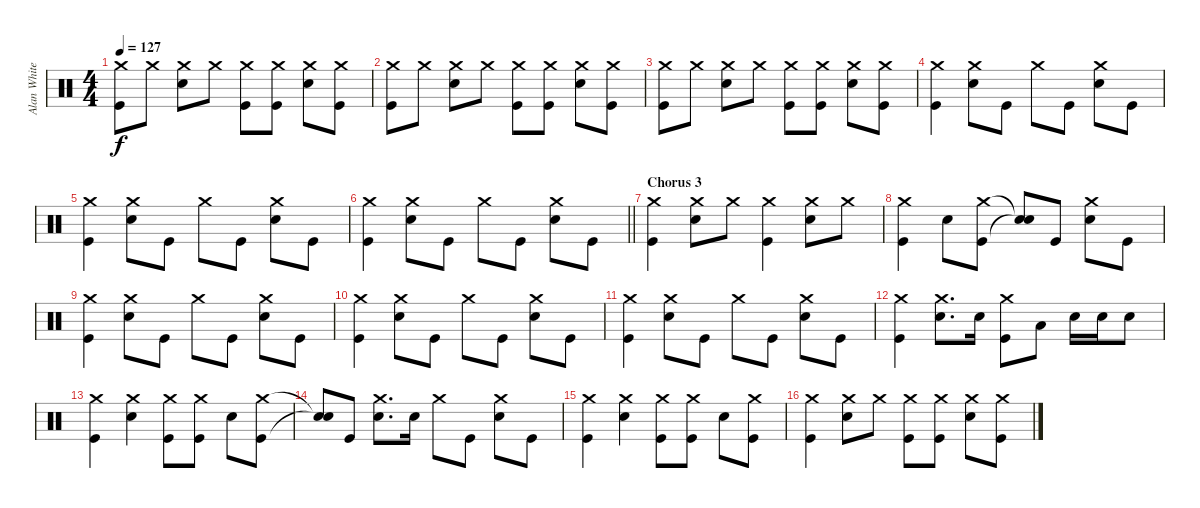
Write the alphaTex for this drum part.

\track ("Alan White (Percussion)" "Alan White") {instrument percussion}
\staff {score}
\articulation defaults
\ts (4 4)
\tempo 127
\clef neutral
\ks c
("Crash medium (hit)" "Kick (hit)").8{dy f} "Crash medium (hit)".8 ("Crash medium (hit)" "Snare (hit) 2").8 "Crash medium (hit)".8 ("Crash medium (hit)" "Kick (hit)").8 ("Crash medium (hit)" "Kick (hit)").8 ("Crash medium (hit)" "Snare (hit) 2").8 ("Crash medium (hit)" "Kick (hit)").8 |
("Crash medium (hit)" "Kick (hit)").8 "Crash medium (hit)".8 ("Crash medium (hit)" "Snare (hit) 2").8 "Crash medium (hit)".8 ("Crash medium (hit)" "Kick (hit)").8 ("Crash medium (hit)" "Kick (hit)").8 ("Crash medium (hit)" "Snare (hit) 2").8 ("Crash medium (hit)" "Kick (hit)").8 |
("Crash medium (hit)" "Kick (hit)").8 "Crash medium (hit)".8 ("Crash medium (hit)" "Snare (hit) 2").8 "Crash medium (hit)".8 ("Crash medium (hit)" "Kick (hit)").8 ("Crash medium (hit)" "Kick (hit)").8 ("Crash medium (hit)" "Snare (hit) 2").8 ("Crash medium (hit)" "Kick (hit)").8 |
("Crash medium (hit)" "Kick (hit)").4 ("Crash medium (hit)" "Snare (hit) 2").8 "Kick (hit)".8 "Crash medium (hit)".8 "Kick (hit)".8 ("Crash medium (hit)" "Snare (hit) 2").8 "Kick (hit)".8 |
("Crash medium (hit)" "Kick (hit)").4 ("Crash medium (hit)" "Snare (hit) 2").8 "Kick (hit)".8 "Crash medium (hit)".8 "Kick (hit)".8 ("Crash medium (hit)" "Snare (hit) 2").8 "Kick (hit)".8 |
\barLineRight lightlight
("Crash medium (hit)" "Kick (hit)").4 ("Crash medium (hit)" "Snare (hit) 2").8 "Kick (hit)".8 "Crash medium (hit)".8 "Kick (hit)".8 ("Crash medium (hit)" "Snare (hit) 2").8 "Kick (hit)".8 |
\section ("" "Chorus 3")
("Crash medium (hit)" "Kick (hit)").4 ("Crash medium (hit)" "Snare (hit) 2").8 "Crash medium (hit)".8 ("Crash medium (hit)" "Kick (hit)").4 ("Crash medium (hit)" "Snare (hit) 2").8 "Crash medium (hit)".8 |
("Crash medium (hit)" "Kick (hit)").4 "Snare (hit) 2".8 ("Crash medium (hit)" "Kick (hit)").8 ("Snare (hit)"{t} "Snare (hit)"{t}).8 "Kick (hit)".8 ("Crash medium (hit)" "Snare (hit) 2").8 "Kick (hit)".8 |
("Crash medium (hit)" "Kick (hit)").4 ("Crash medium (hit)" "Snare (hit) 2").8 "Kick (hit)".8 "Crash medium (hit)".8 "Kick (hit)".8 ("Crash medium (hit)" "Snare (hit) 2").8 "Kick (hit)".8 |
("Crash medium (hit)" "Kick (hit)").4 ("Crash medium (hit)" "Snare (hit) 2").8 "Kick (hit)".8 "Crash medium (hit)".8 "Kick (hit)".8 ("Crash medium (hit)" "Snare (hit) 2").8 "Kick (hit)".8 |
("Crash medium (hit)" "Kick (hit)").4 ("Crash medium (hit)" "Snare (hit) 2").8 "Kick (hit)".8 "Crash medium (hit)".8 "Kick (hit)".8 ("Crash medium (hit)" "Snare (hit) 2").8 "Kick (hit)".8 |
("Crash medium (hit)" "Kick (hit)").4 ("Crash medium (hit)" "Snare (hit) 2").8{d} "Snare (hit) 2".16 ("Crash medium (hit)" "Kick (hit)").8 "Low Tom (hit)".8 "Snare (hit) 2".16 "Snare (hit) 2".16 "Snare (hit) 2".8 |
("Crash medium (hit)" "Kick (hit)").4 ("Crash medium (hit)" "Snare (hit) 2").4 ("Crash medium (hit)" "Kick (hit)").8 ("Crash medium (hit)" "Kick (hit)").8 "Snare (hit) 2".8 ("Crash medium (hit)" "Kick (hit)").8 |
("Snare (hit)"{t} "Snare (hit)"{t}).8 "Kick (hit)".8 ("Crash medium (hit)" "Snare (hit) 2").8{d} "Snare (hit) 2".16 "Crash medium (hit)".8 "Kick (hit)".8 ("Crash medium (hit)" "Snare (hit) 2").8 "Kick (hit)".8 |
("Crash medium (hit)" "Kick (hit)").4 ("Crash medium (hit)" "Snare (hit) 2").4 ("Crash medium (hit)" "Kick (hit)").8 ("Crash medium (hit)" "Kick (hit)").8 "Snare (hit) 2".8 ("Crash medium (hit)" "Kick (hit)").8 |
("Crash medium (hit)" "Kick (hit)").4 ("Crash medium (hit)" "Snare (hit) 2").8 "Crash medium (hit)".8 ("Crash medium (hit)" "Kick (hit)").8 ("Crash medium (hit)" "Kick (hit)").8 ("Crash medium (hit)" "Snare (hit) 2").8 ("Crash medium (hit)" "Kick (hit)").8
